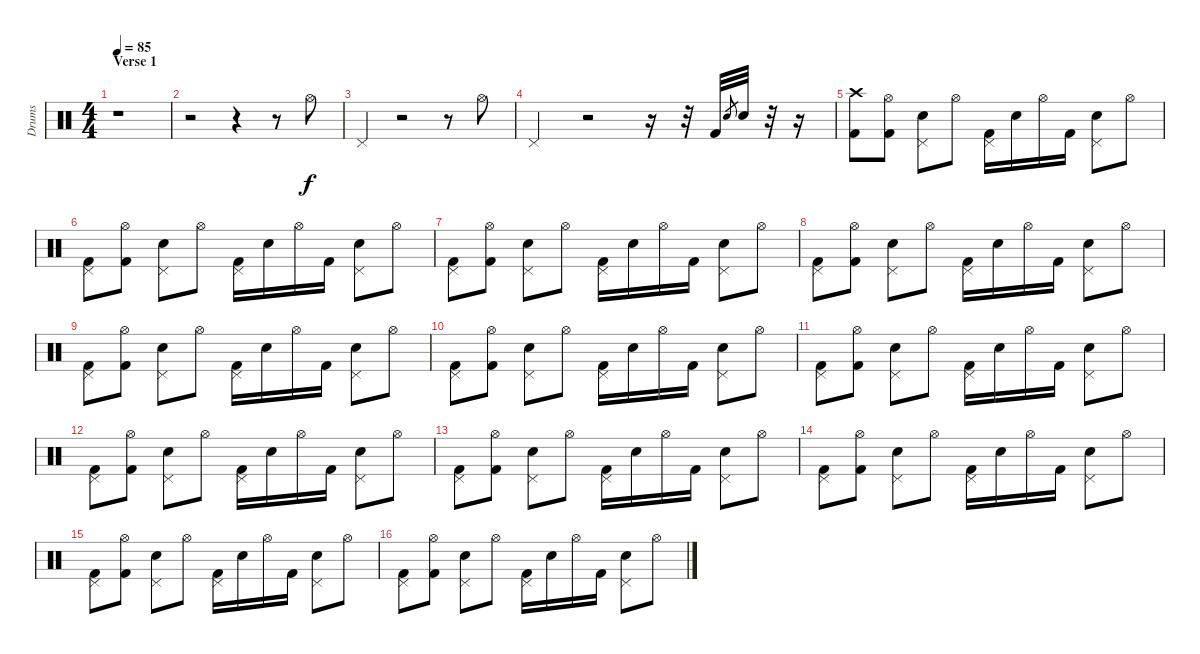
\track ("Drums" "Drums") {instrument percussion}
\staff {score}
\articulation defaults
\ts (4 4)
\section ("" "Verse 1")
\tempo 85
\clef neutral
\ks c
r.1{dy f} |
r.2 r.4 r.8 "Hi-Hat (open)".8 |
"Pedal Hi-Hat (hit)".4 r.2 r.8 "Hi-Hat (open)".8 |
"Pedal Hi-Hat (hit)".4 r.2 r.16 r.32 "Kick (hit) 2".32 "Electric Snare (hit)".8{gr} "Electric Snare (hit)".32 r.32 r.16 |
("Crash high (hit)" "Kick (hit) 2").8 ("Hi-Hat (open)" "Kick (hit) 2").8 ("Electric Snare (hit)" "Pedal Hi-Hat (hit)").8 "Hi-Hat (open)".8 ("Pedal Hi-Hat (hit)" "Kick (hit) 2").16 "Electric Snare (hit)".16 "Hi-Hat (open)".16 "Kick (hit) 2".16 ("Electric Snare (hit)" "Pedal Hi-Hat (hit)").8 "Hi-Hat (open)".8 |
("Pedal Hi-Hat (hit)" "Kick (hit) 2").8 ("Hi-Hat (open)" "Kick (hit) 2").8 ("Electric Snare (hit)" "Pedal Hi-Hat (hit)").8 "Hi-Hat (open)".8 ("Pedal Hi-Hat (hit)" "Kick (hit) 2").16 "Electric Snare (hit)".16 "Hi-Hat (open)".16 "Kick (hit) 2".16 ("Electric Snare (hit)" "Pedal Hi-Hat (hit)").8 "Hi-Hat (open)".8 |
("Pedal Hi-Hat (hit)" "Kick (hit) 2").8 ("Hi-Hat (open)" "Kick (hit) 2").8 ("Electric Snare (hit)" "Pedal Hi-Hat (hit)").8 "Hi-Hat (open)".8 ("Pedal Hi-Hat (hit)" "Kick (hit) 2").16 "Electric Snare (hit)".16 "Hi-Hat (open)".16 "Kick (hit) 2".16 ("Electric Snare (hit)" "Pedal Hi-Hat (hit)").8 "Hi-Hat (open)".8 |
("Pedal Hi-Hat (hit)" "Kick (hit) 2").8 ("Hi-Hat (open)" "Kick (hit) 2").8 ("Electric Snare (hit)" "Pedal Hi-Hat (hit)").8 "Hi-Hat (open)".8 ("Pedal Hi-Hat (hit)" "Kick (hit) 2").16 "Electric Snare (hit)".16 "Hi-Hat (open)".16 "Kick (hit) 2".16 ("Electric Snare (hit)" "Pedal Hi-Hat (hit)").8 "Hi-Hat (open)".8 |
("Pedal Hi-Hat (hit)" "Kick (hit) 2").8 ("Hi-Hat (open)" "Kick (hit) 2").8 ("Electric Snare (hit)" "Pedal Hi-Hat (hit)").8 "Hi-Hat (open)".8 ("Pedal Hi-Hat (hit)" "Kick (hit) 2").16 "Electric Snare (hit)".16 "Hi-Hat (open)".16 "Kick (hit) 2".16 ("Electric Snare (hit)" "Pedal Hi-Hat (hit)").8 "Hi-Hat (open)".8 |
("Pedal Hi-Hat (hit)" "Kick (hit) 2").8 ("Hi-Hat (open)" "Kick (hit) 2").8 ("Electric Snare (hit)" "Pedal Hi-Hat (hit)").8 "Hi-Hat (open)".8 ("Pedal Hi-Hat (hit)" "Kick (hit) 2").16 "Electric Snare (hit)".16 "Hi-Hat (open)".16 "Kick (hit) 2".16 ("Electric Snare (hit)" "Pedal Hi-Hat (hit)").8 "Hi-Hat (open)".8 |
("Pedal Hi-Hat (hit)" "Kick (hit) 2").8 ("Hi-Hat (open)" "Kick (hit) 2").8 ("Electric Snare (hit)" "Pedal Hi-Hat (hit)").8 "Hi-Hat (open)".8 ("Pedal Hi-Hat (hit)" "Kick (hit) 2").16 "Electric Snare (hit)".16 "Hi-Hat (open)".16 "Kick (hit) 2".16 ("Electric Snare (hit)" "Pedal Hi-Hat (hit)").8 "Hi-Hat (open)".8 |
("Pedal Hi-Hat (hit)" "Kick (hit) 2").8 ("Hi-Hat (open)" "Kick (hit) 2").8 ("Electric Snare (hit)" "Pedal Hi-Hat (hit)").8 "Hi-Hat (open)".8 ("Pedal Hi-Hat (hit)" "Kick (hit) 2").16 "Electric Snare (hit)".16 "Hi-Hat (open)".16 "Kick (hit) 2".16 ("Electric Snare (hit)" "Pedal Hi-Hat (hit)").8 "Hi-Hat (open)".8 |
("Pedal Hi-Hat (hit)" "Kick (hit) 2").8 ("Hi-Hat (open)" "Kick (hit) 2").8 ("Electric Snare (hit)" "Pedal Hi-Hat (hit)").8 "Hi-Hat (open)".8 ("Pedal Hi-Hat (hit)" "Kick (hit) 2").16 "Electric Snare (hit)".16 "Hi-Hat (open)".16 "Kick (hit) 2".16 ("Electric Snare (hit)" "Pedal Hi-Hat (hit)").8 "Hi-Hat (open)".8 |
("Pedal Hi-Hat (hit)" "Kick (hit) 2").8 ("Hi-Hat (open)" "Kick (hit) 2").8 ("Electric Snare (hit)" "Pedal Hi-Hat (hit)").8 "Hi-Hat (open)".8 ("Pedal Hi-Hat (hit)" "Kick (hit) 2").16 "Electric Snare (hit)".16 "Hi-Hat (open)".16 "Kick (hit) 2".16 ("Electric Snare (hit)" "Pedal Hi-Hat (hit)").8 "Hi-Hat (open)".8 |
("Pedal Hi-Hat (hit)" "Kick (hit) 2").8 ("Hi-Hat (open)" "Kick (hit) 2").8 ("Electric Snare (hit)" "Pedal Hi-Hat (hit)").8 "Hi-Hat (open)".8 ("Pedal Hi-Hat (hit)" "Kick (hit) 2").16 "Electric Snare (hit)".16 "Hi-Hat (open)".16 "Kick (hit) 2".16 ("Electric Snare (hit)" "Pedal Hi-Hat (hit)").8 "Hi-Hat (open)".8 |
("Pedal Hi-Hat (hit)" "Kick (hit) 2").8 ("Hi-Hat (open)" "Kick (hit) 2").8 ("Electric Snare (hit)" "Pedal Hi-Hat (hit)").8 "Hi-Hat (open)".8 ("Pedal Hi-Hat (hit)" "Kick (hit) 2").16 "Electric Snare (hit)".16 "Hi-Hat (open)".16 "Kick (hit) 2".16 ("Electric Snare (hit)" "Pedal Hi-Hat (hit)").8 "Hi-Hat (open)".8
